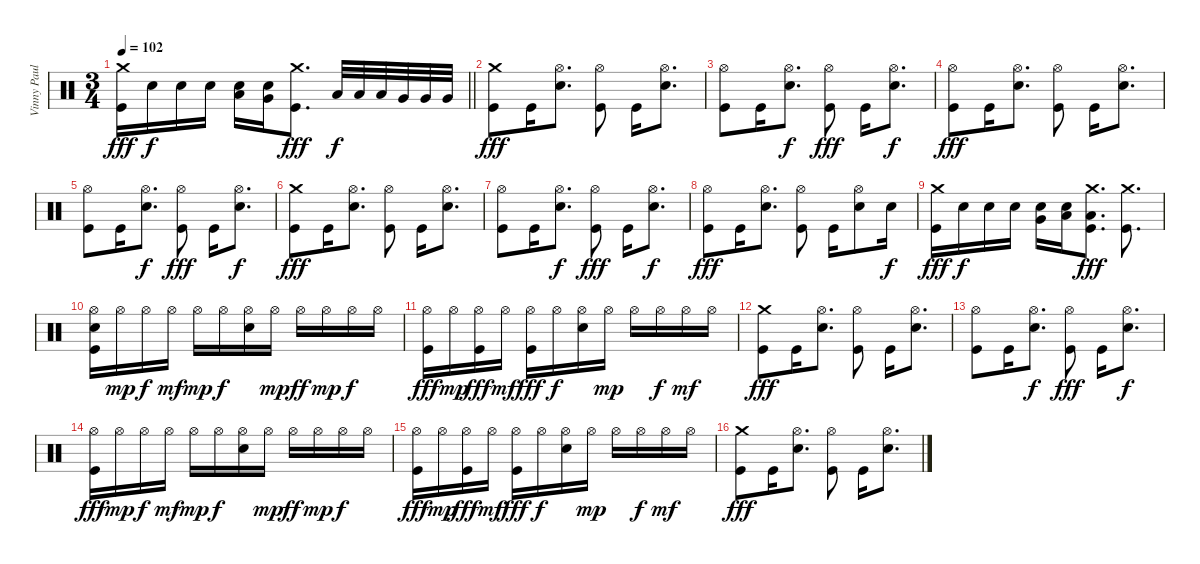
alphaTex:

\track ("Vinny Paul" "Vinny Paul") {instrument percussion}
\staff {score}
\articulation defaults
\ts (3 4)
\tempo 102
\clef neutral
\barLineRight lightlight
\ks c
("Crash medium (hit)" "Kick (hit)").16{dy fff} "Electric Snare (hit)".16{dy f} "Electric Snare (hit)".16 "Electric Snare (hit)".16 ("Electric Snare (hit)" "Low Tom (hit)").16 ("Electric Snare (hit)" "Very Low Tom (hit)").16 ("Crash medium (hit)" "Kick (hit)").8{d dy fff} "Low Tom (hit)".32{dy f} "Low Tom (hit)".32 "Low Tom (hit)".32 "Very Low Tom (hit)".32 "Very Low Tom (hit)".32 "Very Low Tom (hit)".32 |
\section ("" "")
("Crash medium (hit)" "Kick (hit)").8{dy fff} "Kick (hit)".16 ("Hi-Hat (open)" "Electric Snare (hit)").8{d} ("Hi-Hat (open)" "Kick (hit)").8 "Kick (hit)".16 ("Hi-Hat (open)" "Electric Snare (hit)").8{d} |
("Hi-Hat (open)" "Kick (hit)").8 "Kick (hit)".16 ("Hi-Hat (open)" "Electric Snare (hit)").8{d dy f} ("Hi-Hat (open)" "Kick (hit)").8{dy fff} "Kick (hit)".16 ("Hi-Hat (open)" "Electric Snare (hit)").8{d dy f} |
("Hi-Hat (open)" "Kick (hit)").8{dy fff} "Kick (hit)".16 ("Hi-Hat (open)" "Electric Snare (hit)").8{d} ("Hi-Hat (open)" "Kick (hit)").8 "Kick (hit)".16 ("Hi-Hat (open)" "Electric Snare (hit)").8{d} |
("Hi-Hat (open)" "Kick (hit)").8 "Kick (hit)".16 ("Hi-Hat (open)" "Electric Snare (hit)").8{d dy f} ("Hi-Hat (open)" "Kick (hit)").8{dy fff} "Kick (hit)".16 ("Hi-Hat (open)" "Electric Snare (hit)").8{d dy f} |
("Crash medium (hit)" "Kick (hit)").8{dy fff} "Kick (hit)".16 ("Hi-Hat (open)" "Electric Snare (hit)").8{d} ("Hi-Hat (open)" "Kick (hit)").8 "Kick (hit)".16 ("Hi-Hat (open)" "Electric Snare (hit)").8{d} |
("Hi-Hat (open)" "Kick (hit)").8 "Kick (hit)".16 ("Hi-Hat (open)" "Electric Snare (hit)").8{d dy f} ("Hi-Hat (open)" "Kick (hit)").8{dy fff} "Kick (hit)".16 ("Hi-Hat (open)" "Electric Snare (hit)").8{d dy f} |
("Hi-Hat (open)" "Kick (hit)").8{dy fff} "Kick (hit)".16 ("Hi-Hat (open)" "Electric Snare (hit)").8{d} ("Hi-Hat (open)" "Kick (hit)").8 "Kick (hit)".16 ("Hi-Hat (open)" "Electric Snare (hit)").8 "Electric Snare (hit)".16{dy f} |
("Crash medium (hit)" "Kick (hit)").16{dy fff} "Electric Snare (hit)".16{dy f} "Electric Snare (hit)".16 "Electric Snare (hit)".16 ("Electric Snare (hit)" "Very Low Tom (hit)").16 ("Electric Snare (hit)" "Low Floor Tom (hit)").16 ("Crash medium (hit)" "Low Floor Tom (hit)" "Kick (hit)").8{d dy fff} ("Crash medium (hit)" "Kick (hit)").8{d} |
("Hi-Hat (open)" "Electric Snare (hit)" "Kick (hit)").16 "Hi-Hat (open)".16{dy mp} "Hi-Hat (open)".16{dy f} "Hi-Hat (open)".16{dy mf} "Hi-Hat (open)".16{dy mp} "Hi-Hat (open)".16{dy f} ("Hi-Hat (open)" "Electric Snare (hit)").16 "Hi-Hat (open)".16{dy mp} "Hi-Hat (open)".16{dy ff} "Hi-Hat (open)".16{dy mp} "Hi-Hat (open)".16{dy f} "Hi-Hat (open)".16 |
("Hi-Hat (open)" "Kick (hit)").16{dy fff} "Hi-Hat (open)".16{dy mp} ("Hi-Hat (open)" "Kick (hit)").16{dy fff} "Hi-Hat (open)".16{dy mf} ("Hi-Hat (open)" "Kick (hit)").16{dy fff} "Hi-Hat (open)".16{dy f} ("Hi-Hat (open)" "Electric Snare (hit)").16 "Hi-Hat (open)".16{dy mp} "Hi-Hat (open)".16 "Hi-Hat (open)".16{dy f} "Hi-Hat (open)".16{dy mf} "Hi-Hat (open)".16 |
("Crash medium (hit)" "Kick (hit)").8{dy fff} "Kick (hit)".16 ("Hi-Hat (open)" "Electric Snare (hit)").8{d} ("Hi-Hat (open)" "Kick (hit)").8 "Kick (hit)".16 ("Hi-Hat (open)" "Electric Snare (hit)").8{d} |
("Hi-Hat (open)" "Kick (hit)").8 "Kick (hit)".16 ("Hi-Hat (open)" "Electric Snare (hit)").8{d dy f} ("Hi-Hat (open)" "Kick (hit)").8{dy fff} "Kick (hit)".16 ("Hi-Hat (open)" "Electric Snare (hit)").8{d dy f} |
("Hi-Hat (open)" "Kick (hit)").16{dy fff} "Hi-Hat (open)".16{dy mp} "Hi-Hat (open)".16{dy f} "Hi-Hat (open)".16{dy mf} "Hi-Hat (open)".16{dy mp} "Hi-Hat (open)".16{dy f} ("Hi-Hat (open)" "Electric Snare (hit)").16 "Hi-Hat (open)".16{dy mp} "Hi-Hat (open)".16{dy ff} "Hi-Hat (open)".16{dy mp} "Hi-Hat (open)".16{dy f} "Hi-Hat (open)".16 |
("Hi-Hat (open)" "Kick (hit)").16{dy fff} "Hi-Hat (open)".16{dy mp} ("Hi-Hat (open)" "Kick (hit)").16{dy fff} "Hi-Hat (open)".16{dy mf} ("Hi-Hat (open)" "Kick (hit)").16{dy fff} "Hi-Hat (open)".16{dy f} ("Hi-Hat (open)" "Electric Snare (hit)").16 "Hi-Hat (open)".16{dy mp} "Hi-Hat (open)".16 "Hi-Hat (open)".16{dy f} "Hi-Hat (open)".16{dy mf} "Hi-Hat (open)".16 |
("Crash medium (hit)" "Kick (hit)").8{dy fff} "Kick (hit)".16 ("Hi-Hat (open)" "Electric Snare (hit)").8{d} ("Hi-Hat (open)" "Kick (hit)").8 "Kick (hit)".16 ("Hi-Hat (open)" "Electric Snare (hit)").8{d}
